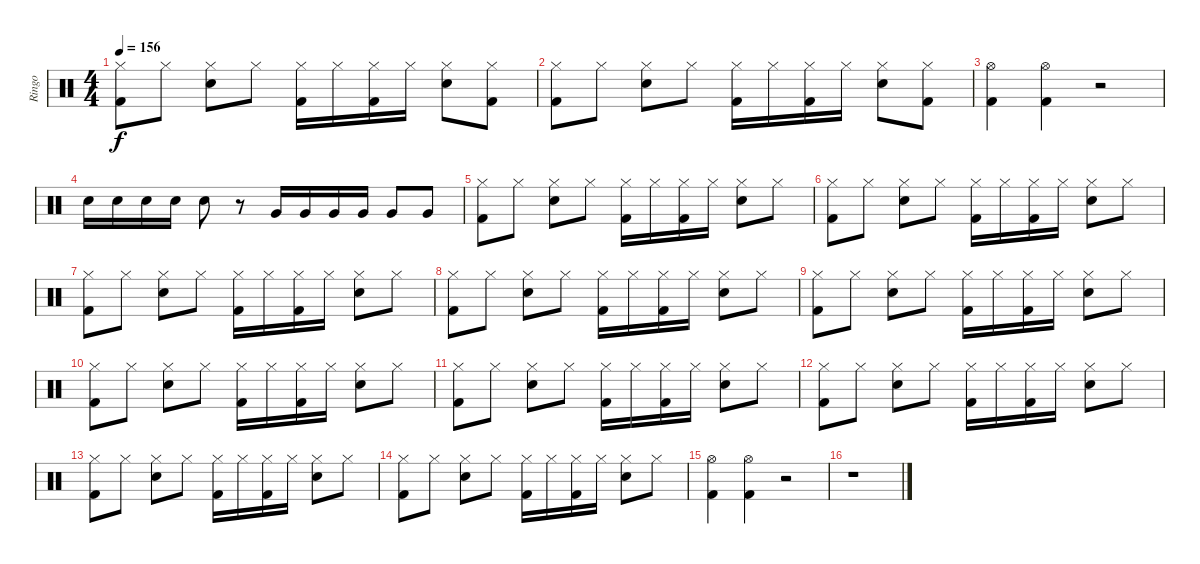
\track ("Ringo" "Ringo") {instrument percussion}
\staff {score}
\articulation defaults
\ts (4 4)
\tempo 156
\clef neutral
\ks c
("Hi-Hat (closed)" "Kick (hit) 2").8{dy f} "Hi-Hat (closed)".8 ("Hi-Hat (closed)" "Snare (hit) 2").8 "Hi-Hat (closed)".8 ("Hi-Hat (closed)" "Kick (hit) 2").16 "Hi-Hat (closed)".16 ("Hi-Hat (closed)" "Kick (hit) 2").16 "Hi-Hat (closed)".16 ("Hi-Hat (closed)" "Snare (hit) 2").8 ("Hi-Hat (closed)" "Kick (hit) 2").8 |
("Hi-Hat (closed)" "Kick (hit) 2").8 "Hi-Hat (closed)".8 ("Hi-Hat (closed)" "Snare (hit) 2").8 "Hi-Hat (closed)".8 ("Hi-Hat (closed)" "Kick (hit) 2").16 "Hi-Hat (closed)".16 ("Hi-Hat (closed)" "Kick (hit) 2").16 "Hi-Hat (closed)".16 ("Hi-Hat (closed)" "Snare (hit) 2").8 ("Hi-Hat (closed)" "Kick (hit) 2").8 |
("Hi-Hat (open)" "Kick (hit) 2").4 ("Hi-Hat (open)" "Kick (hit) 2").4 r.2 |
"Snare (hit) 2".16 "Snare (hit) 2".16 "Snare (hit) 2".16 "Snare (hit) 2".16 "Snare (hit) 2".8 r.8 "Very Low Tom (hit)".16 "Very Low Tom (hit)".16 "Very Low Tom (hit)".16 "Very Low Tom (hit)".16 "Very Low Tom (hit)".8 "Very Low Tom (hit)".8 |
("Hi-Hat (closed)" "Kick (hit) 2").8 "Hi-Hat (closed)".8 ("Hi-Hat (closed)" "Snare (hit) 2").8 "Hi-Hat (closed)".8 ("Hi-Hat (closed)" "Kick (hit) 2").16 "Hi-Hat (closed)".16 ("Hi-Hat (closed)" "Kick (hit) 2").16 "Hi-Hat (closed)".16 ("Hi-Hat (closed)" "Snare (hit) 2").8 "Hi-Hat (closed)".8 |
("Hi-Hat (closed)" "Kick (hit) 2").8 "Hi-Hat (closed)".8 ("Hi-Hat (closed)" "Snare (hit) 2").8 "Hi-Hat (closed)".8 ("Hi-Hat (closed)" "Kick (hit) 2").16 "Hi-Hat (closed)".16 ("Hi-Hat (closed)" "Kick (hit) 2").16 "Hi-Hat (closed)".16 ("Hi-Hat (closed)" "Snare (hit) 2").8 "Hi-Hat (closed)".8 |
("Hi-Hat (closed)" "Kick (hit) 2").8 "Hi-Hat (closed)".8 ("Hi-Hat (closed)" "Snare (hit) 2").8 "Hi-Hat (closed)".8 ("Hi-Hat (closed)" "Kick (hit) 2").16 "Hi-Hat (closed)".16 ("Hi-Hat (closed)" "Kick (hit) 2").16 "Hi-Hat (closed)".16 ("Hi-Hat (closed)" "Snare (hit) 2").8 "Hi-Hat (closed)".8 |
("Hi-Hat (closed)" "Kick (hit) 2").8 "Hi-Hat (closed)".8 ("Hi-Hat (closed)" "Snare (hit) 2").8 "Hi-Hat (closed)".8 ("Hi-Hat (closed)" "Kick (hit) 2").16 "Hi-Hat (closed)".16 ("Hi-Hat (closed)" "Kick (hit) 2").16 "Hi-Hat (closed)".16 ("Hi-Hat (closed)" "Snare (hit) 2").8 "Hi-Hat (closed)".8 |
("Hi-Hat (closed)" "Kick (hit) 2").8 "Hi-Hat (closed)".8 ("Hi-Hat (closed)" "Snare (hit) 2").8 "Hi-Hat (closed)".8 ("Hi-Hat (closed)" "Kick (hit) 2").16 "Hi-Hat (closed)".16 ("Hi-Hat (closed)" "Kick (hit) 2").16 "Hi-Hat (closed)".16 ("Hi-Hat (closed)" "Snare (hit) 2").8 "Hi-Hat (closed)".8 |
("Hi-Hat (closed)" "Kick (hit) 2").8 "Hi-Hat (closed)".8 ("Hi-Hat (closed)" "Snare (hit) 2").8 "Hi-Hat (closed)".8 ("Hi-Hat (closed)" "Kick (hit) 2").16 "Hi-Hat (closed)".16 ("Hi-Hat (closed)" "Kick (hit) 2").16 "Hi-Hat (closed)".16 ("Hi-Hat (closed)" "Snare (hit) 2").8 "Hi-Hat (closed)".8 |
("Hi-Hat (closed)" "Kick (hit) 2").8 "Hi-Hat (closed)".8 ("Hi-Hat (closed)" "Snare (hit) 2").8 "Hi-Hat (closed)".8 ("Hi-Hat (closed)" "Kick (hit) 2").16 "Hi-Hat (closed)".16 ("Hi-Hat (closed)" "Kick (hit) 2").16 "Hi-Hat (closed)".16 ("Hi-Hat (closed)" "Snare (hit) 2").8 "Hi-Hat (closed)".8 |
("Hi-Hat (closed)" "Kick (hit) 2").8 "Hi-Hat (closed)".8 ("Hi-Hat (closed)" "Snare (hit) 2").8 "Hi-Hat (closed)".8 ("Hi-Hat (closed)" "Kick (hit) 2").16 "Hi-Hat (closed)".16 ("Hi-Hat (closed)" "Kick (hit) 2").16 "Hi-Hat (closed)".16 ("Hi-Hat (closed)" "Snare (hit) 2").8 "Hi-Hat (closed)".8 |
("Hi-Hat (closed)" "Kick (hit) 2").8 "Hi-Hat (closed)".8 ("Hi-Hat (closed)" "Snare (hit) 2").8 "Hi-Hat (closed)".8 ("Hi-Hat (closed)" "Kick (hit) 2").16 "Hi-Hat (closed)".16 ("Hi-Hat (closed)" "Kick (hit) 2").16 "Hi-Hat (closed)".16 ("Hi-Hat (closed)" "Snare (hit) 2").8 "Hi-Hat (closed)".8 |
("Hi-Hat (closed)" "Kick (hit) 2").8 "Hi-Hat (closed)".8 ("Hi-Hat (closed)" "Snare (hit) 2").8 "Hi-Hat (closed)".8 ("Hi-Hat (closed)" "Kick (hit) 2").16 "Hi-Hat (closed)".16 ("Hi-Hat (closed)" "Kick (hit) 2").16 "Hi-Hat (closed)".16 ("Hi-Hat (closed)" "Snare (hit) 2").8 "Hi-Hat (closed)".8 |
("Hi-Hat (open)" "Kick (hit) 2").4 ("Hi-Hat (open)" "Kick (hit) 2").4 r.2 |
r.1
